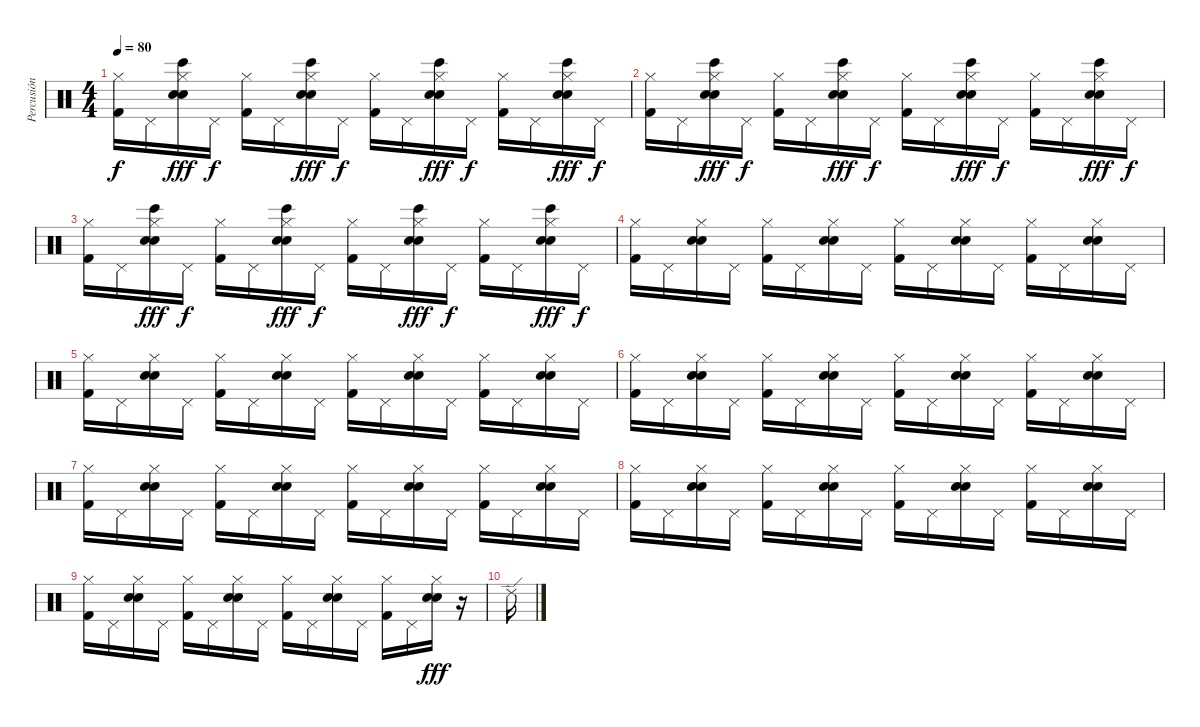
\track ("Percusión" "Percusión") {instrument percussion}
\staff {score}
\articulation defaults
\ts (4 4)
\tempo 80
\clef neutral
\ks c
("Hi-Hat (closed)" "Kick (hit) 2").16{dy f} "Pedal Hi-Hat (hit)".16 ("Hi-Hat (closed)" "Bongo High (hit)" "Hand Clap (hit)" "Electric Snare (hit)").16{dy fff} "Pedal Hi-Hat (hit)".16{dy f} ("Hi-Hat (closed)" "Kick (hit) 2").16 "Pedal Hi-Hat (hit)".16 ("Hi-Hat (closed)" "Bongo High (hit)" "Hand Clap (hit)" "Electric Snare (hit)").16{dy fff} "Pedal Hi-Hat (hit)".16{dy f} ("Hi-Hat (closed)" "Kick (hit) 2").16 "Pedal Hi-Hat (hit)".16 ("Hi-Hat (closed)" "Bongo High (hit)" "Hand Clap (hit)" "Electric Snare (hit)").16{dy fff} "Pedal Hi-Hat (hit)".16{dy f} ("Hi-Hat (closed)" "Kick (hit) 2").16 "Pedal Hi-Hat (hit)".16 ("Hi-Hat (closed)" "Bongo High (hit)" "Hand Clap (hit)" "Electric Snare (hit)").16{dy fff} "Pedal Hi-Hat (hit)".16{dy f} |
("Hi-Hat (closed)" "Kick (hit) 2").16 "Pedal Hi-Hat (hit)".16 ("Hi-Hat (closed)" "Bongo High (hit)" "Hand Clap (hit)" "Electric Snare (hit)").16{dy fff} "Pedal Hi-Hat (hit)".16{dy f} ("Hi-Hat (closed)" "Kick (hit) 2").16 "Pedal Hi-Hat (hit)".16 ("Hi-Hat (closed)" "Bongo High (hit)" "Hand Clap (hit)" "Electric Snare (hit)").16{dy fff} "Pedal Hi-Hat (hit)".16{dy f} ("Hi-Hat (closed)" "Kick (hit) 2").16 "Pedal Hi-Hat (hit)".16 ("Hi-Hat (closed)" "Bongo High (hit)" "Hand Clap (hit)" "Electric Snare (hit)").16{dy fff} "Pedal Hi-Hat (hit)".16{dy f} ("Hi-Hat (closed)" "Kick (hit) 2").16 "Pedal Hi-Hat (hit)".16 ("Hi-Hat (closed)" "Bongo High (hit)" "Hand Clap (hit)" "Electric Snare (hit)").16{dy fff} "Pedal Hi-Hat (hit)".16{dy f} |
("Hi-Hat (closed)" "Kick (hit) 2").16 "Pedal Hi-Hat (hit)".16 ("Hi-Hat (closed)" "Bongo High (hit)" "Hand Clap (hit)" "Electric Snare (hit)").16{dy fff} "Pedal Hi-Hat (hit)".16{dy f} ("Hi-Hat (closed)" "Kick (hit) 2").16 "Pedal Hi-Hat (hit)".16 ("Hi-Hat (closed)" "Bongo High (hit)" "Hand Clap (hit)" "Electric Snare (hit)").16{dy fff} "Pedal Hi-Hat (hit)".16{dy f} ("Hi-Hat (closed)" "Kick (hit) 2").16 "Pedal Hi-Hat (hit)".16 ("Hi-Hat (closed)" "Bongo High (hit)" "Hand Clap (hit)" "Electric Snare (hit)").16{dy fff} "Pedal Hi-Hat (hit)".16{dy f} ("Hi-Hat (closed)" "Kick (hit) 2").16 "Pedal Hi-Hat (hit)".16 ("Hi-Hat (closed)" "Bongo High (hit)" "Hand Clap (hit)" "Electric Snare (hit)").16{dy fff} "Pedal Hi-Hat (hit)".16{dy f} |
("Hi-Hat (closed)" "Kick (hit) 2").16 "Pedal Hi-Hat (hit)".16 ("Hi-Hat (closed)" "Hand Clap (hit)" "Electric Snare (hit)").16 "Pedal Hi-Hat (hit)".16 ("Hi-Hat (closed)" "Kick (hit) 2").16 "Pedal Hi-Hat (hit)".16 ("Hi-Hat (closed)" "Hand Clap (hit)" "Electric Snare (hit)").16 "Pedal Hi-Hat (hit)".16 ("Hi-Hat (closed)" "Kick (hit) 2").16 "Pedal Hi-Hat (hit)".16 ("Hi-Hat (closed)" "Hand Clap (hit)" "Electric Snare (hit)").16 "Pedal Hi-Hat (hit)".16 ("Hi-Hat (closed)" "Kick (hit) 2").16 "Pedal Hi-Hat (hit)".16 ("Hi-Hat (closed)" "Hand Clap (hit)" "Electric Snare (hit)").16 "Pedal Hi-Hat (hit)".16 |
("Hi-Hat (closed)" "Kick (hit) 2").16 "Pedal Hi-Hat (hit)".16 ("Hi-Hat (closed)" "Hand Clap (hit)" "Electric Snare (hit)").16 "Pedal Hi-Hat (hit)".16 ("Hi-Hat (closed)" "Kick (hit) 2").16 "Pedal Hi-Hat (hit)".16 ("Hi-Hat (closed)" "Hand Clap (hit)" "Electric Snare (hit)").16 "Pedal Hi-Hat (hit)".16 ("Hi-Hat (closed)" "Kick (hit) 2").16 "Pedal Hi-Hat (hit)".16 ("Hi-Hat (closed)" "Hand Clap (hit)" "Electric Snare (hit)").16 "Pedal Hi-Hat (hit)".16 ("Hi-Hat (closed)" "Kick (hit) 2").16 "Pedal Hi-Hat (hit)".16 ("Hi-Hat (closed)" "Hand Clap (hit)" "Electric Snare (hit)").16 "Pedal Hi-Hat (hit)".16 |
("Hi-Hat (closed)" "Kick (hit) 2").16 "Pedal Hi-Hat (hit)".16 ("Hi-Hat (closed)" "Hand Clap (hit)" "Electric Snare (hit)").16 "Pedal Hi-Hat (hit)".16 ("Hi-Hat (closed)" "Kick (hit) 2").16 "Pedal Hi-Hat (hit)".16 ("Hi-Hat (closed)" "Hand Clap (hit)" "Electric Snare (hit)").16 "Pedal Hi-Hat (hit)".16 ("Hi-Hat (closed)" "Kick (hit) 2").16 "Pedal Hi-Hat (hit)".16 ("Hi-Hat (closed)" "Hand Clap (hit)" "Electric Snare (hit)").16 "Pedal Hi-Hat (hit)".16 ("Hi-Hat (closed)" "Kick (hit) 2").16 "Pedal Hi-Hat (hit)".16 ("Hi-Hat (closed)" "Hand Clap (hit)" "Electric Snare (hit)").16 "Pedal Hi-Hat (hit)".16 |
("Hi-Hat (closed)" "Kick (hit) 2").16 "Pedal Hi-Hat (hit)".16 ("Hi-Hat (closed)" "Hand Clap (hit)" "Electric Snare (hit)").16 "Pedal Hi-Hat (hit)".16 ("Hi-Hat (closed)" "Kick (hit) 2").16 "Pedal Hi-Hat (hit)".16 ("Hi-Hat (closed)" "Hand Clap (hit)" "Electric Snare (hit)").16 "Pedal Hi-Hat (hit)".16 ("Hi-Hat (closed)" "Kick (hit) 2").16 "Pedal Hi-Hat (hit)".16 ("Hi-Hat (closed)" "Hand Clap (hit)" "Electric Snare (hit)").16 "Pedal Hi-Hat (hit)".16 ("Hi-Hat (closed)" "Kick (hit) 2").16 "Pedal Hi-Hat (hit)".16 ("Hi-Hat (closed)" "Hand Clap (hit)" "Electric Snare (hit)").16 "Pedal Hi-Hat (hit)".16 |
("Hi-Hat (closed)" "Kick (hit) 2").16 "Pedal Hi-Hat (hit)".16 ("Hi-Hat (closed)" "Hand Clap (hit)" "Electric Snare (hit)").16 "Pedal Hi-Hat (hit)".16 ("Hi-Hat (closed)" "Kick (hit) 2").16 "Pedal Hi-Hat (hit)".16 ("Hi-Hat (closed)" "Hand Clap (hit)" "Electric Snare (hit)").16 "Pedal Hi-Hat (hit)".16 ("Hi-Hat (closed)" "Kick (hit) 2").16 "Pedal Hi-Hat (hit)".16 ("Hi-Hat (closed)" "Hand Clap (hit)" "Electric Snare (hit)").16 "Pedal Hi-Hat (hit)".16 ("Hi-Hat (closed)" "Kick (hit) 2").16 "Pedal Hi-Hat (hit)".16 ("Hi-Hat (closed)" "Hand Clap (hit)" "Electric Snare (hit)").16 "Pedal Hi-Hat (hit)".16 |
("Hi-Hat (closed)" "Kick (hit) 2").16 "Pedal Hi-Hat (hit)".16 ("Hi-Hat (closed)" "Hand Clap (hit)" "Electric Snare (hit)").16 "Pedal Hi-Hat (hit)".16 ("Hi-Hat (closed)" "Kick (hit) 2").16 "Pedal Hi-Hat (hit)".16 ("Hi-Hat (closed)" "Hand Clap (hit)" "Electric Snare (hit)").16 "Pedal Hi-Hat (hit)".16 ("Hi-Hat (closed)" "Kick (hit) 2").16 "Pedal Hi-Hat (hit)".16 ("Hi-Hat (closed)" "Hand Clap (hit)" "Electric Snare (hit)").16 "Pedal Hi-Hat (hit)".16 ("Hi-Hat (closed)" "Kick (hit) 2").16 "Pedal Hi-Hat (hit)".16 ("Hi-Hat (closed)" "Hand Clap (hit)" "Electric Snare (hit)").16{dy fff} r.16 |
"Ride (edge) 2".16
